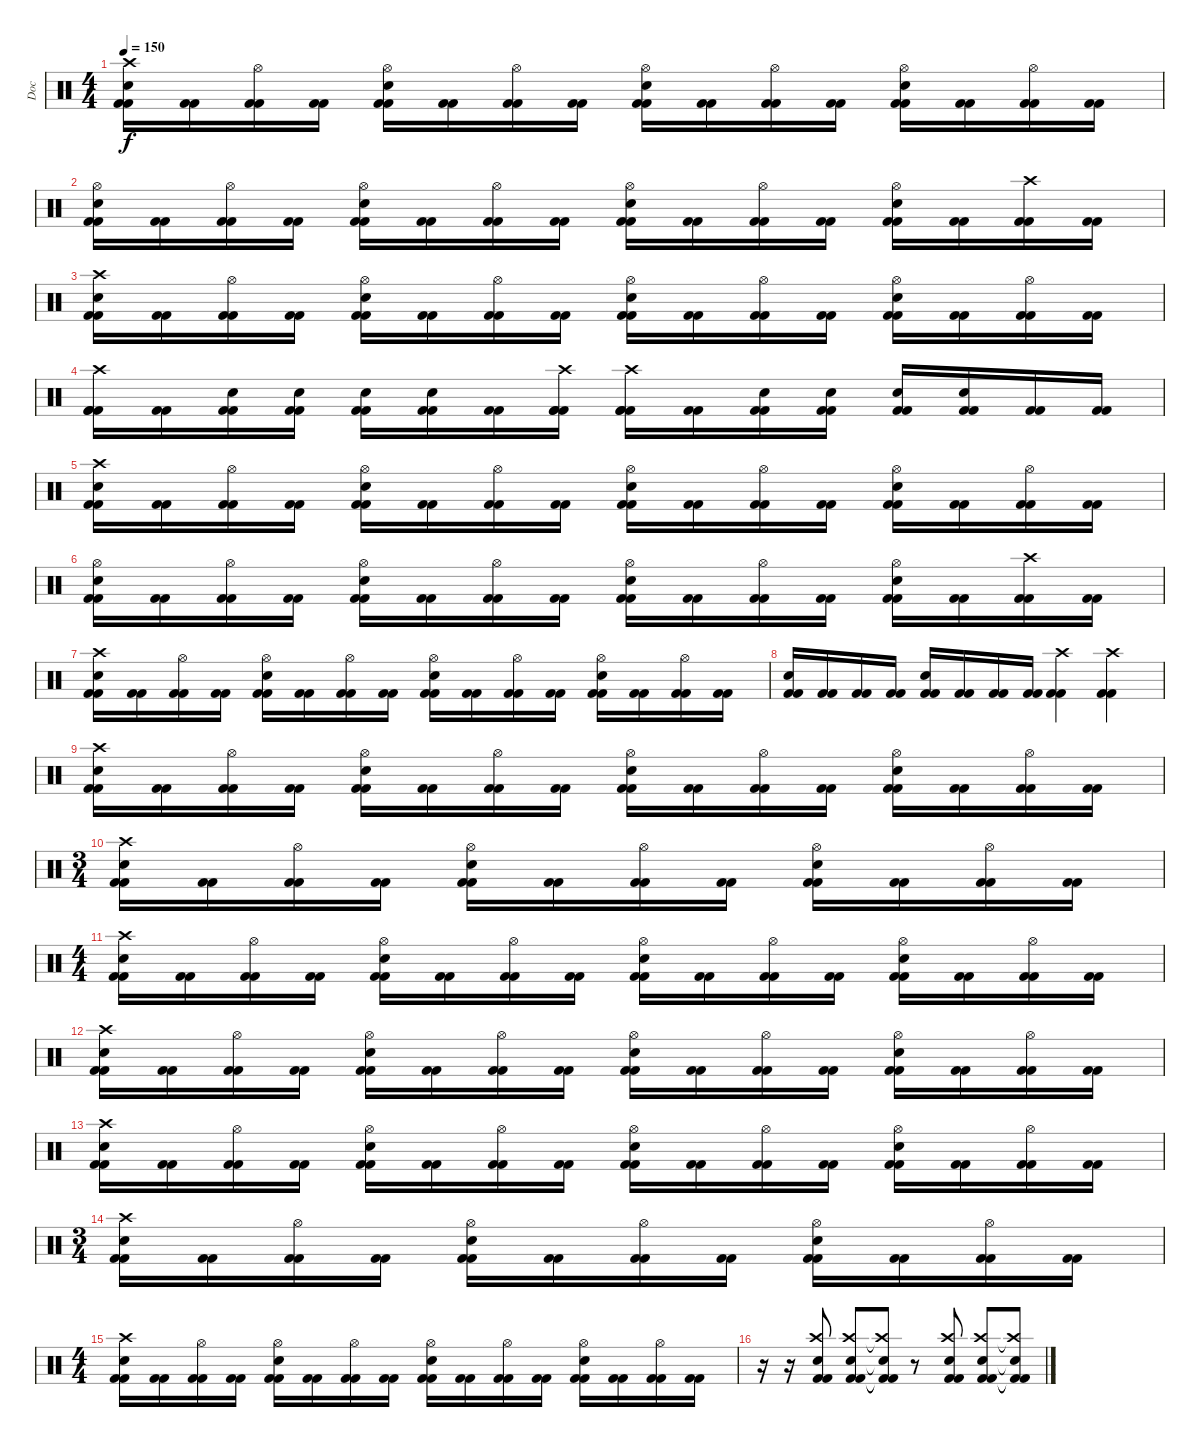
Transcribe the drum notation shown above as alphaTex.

\track ("Doc" "Doc") {instrument percussion}
\staff {score}
\articulation defaults
\ts (4 4)
\tempo 150
\clef neutral
\ks c
("Kick (hit) 2" "Crash high (hit)" "Electric Snare (hit)" "Kick (hit) 2").16{dy f} ("Kick (hit) 2" "Kick (hit) 2").16 ("Kick (hit) 2" "Hi-Hat (open)" "Kick (hit) 2").16 ("Kick (hit) 2" "Kick (hit) 2").16 ("Kick (hit) 2" "Hi-Hat (open)" "Electric Snare (hit)" "Kick (hit) 2").16 ("Kick (hit) 2" "Kick (hit) 2").16 ("Kick (hit) 2" "Hi-Hat (open)" "Kick (hit) 2").16 ("Kick (hit) 2" "Kick (hit) 2").16 ("Kick (hit) 2" "Hi-Hat (open)" "Electric Snare (hit)" "Kick (hit) 2").16 ("Kick (hit) 2" "Kick (hit) 2").16 ("Kick (hit) 2" "Hi-Hat (open)" "Kick (hit) 2").16 ("Kick (hit) 2" "Kick (hit) 2").16 ("Kick (hit) 2" "Hi-Hat (open)" "Electric Snare (hit)" "Kick (hit) 2").16 ("Kick (hit) 2" "Kick (hit) 2").16 ("Kick (hit) 2" "Hi-Hat (open)" "Kick (hit) 2").16 ("Kick (hit) 2" "Kick (hit) 2").16 |
("Kick (hit) 2" "Hi-Hat (open)" "Electric Snare (hit)" "Kick (hit) 2").16 ("Kick (hit) 2" "Kick (hit) 2").16 ("Kick (hit) 2" "Hi-Hat (open)" "Kick (hit) 2").16 ("Kick (hit) 2" "Kick (hit) 2").16 ("Kick (hit) 2" "Hi-Hat (open)" "Electric Snare (hit)" "Kick (hit) 2").16 ("Kick (hit) 2" "Kick (hit) 2").16 ("Kick (hit) 2" "Hi-Hat (open)" "Kick (hit) 2").16 ("Kick (hit) 2" "Kick (hit) 2").16 ("Kick (hit) 2" "Hi-Hat (open)" "Electric Snare (hit)" "Kick (hit) 2").16 ("Kick (hit) 2" "Kick (hit) 2").16 ("Kick (hit) 2" "Hi-Hat (open)" "Kick (hit) 2").16 ("Kick (hit) 2" "Kick (hit) 2").16 ("Kick (hit) 2" "Hi-Hat (open)" "Electric Snare (hit)" "Kick (hit) 2").16 ("Kick (hit) 2" "Kick (hit) 2").16 ("Kick (hit) 2" "Crash high (hit)" "Kick (hit) 2").16 ("Kick (hit) 2" "Kick (hit) 2").16 |
("Kick (hit) 2" "Crash high (hit)" "Electric Snare (hit)" "Kick (hit) 2").16 ("Kick (hit) 2" "Kick (hit) 2").16 ("Kick (hit) 2" "Hi-Hat (open)" "Kick (hit) 2").16 ("Kick (hit) 2" "Kick (hit) 2").16 ("Kick (hit) 2" "Hi-Hat (open)" "Electric Snare (hit)" "Kick (hit) 2").16 ("Kick (hit) 2" "Kick (hit) 2").16 ("Kick (hit) 2" "Hi-Hat (open)" "Kick (hit) 2").16 ("Kick (hit) 2" "Kick (hit) 2").16 ("Kick (hit) 2" "Hi-Hat (open)" "Electric Snare (hit)" "Kick (hit) 2").16 ("Kick (hit) 2" "Kick (hit) 2").16 ("Kick (hit) 2" "Hi-Hat (open)" "Kick (hit) 2").16 ("Kick (hit) 2" "Kick (hit) 2").16 ("Kick (hit) 2" "Hi-Hat (open)" "Electric Snare (hit)" "Kick (hit) 2").16 ("Kick (hit) 2" "Kick (hit) 2").16 ("Kick (hit) 2" "Hi-Hat (open)" "Kick (hit) 2").16 ("Kick (hit) 2" "Kick (hit) 2").16 |
("Kick (hit) 2" "Crash high (hit)" "Kick (hit) 2" "Kick (hit) 2").16 ("Kick (hit) 2" "Kick (hit) 2").16 ("Kick (hit) 2" "Electric Snare (hit)" "Kick (hit) 2").16 ("Kick (hit) 2" "Electric Snare (hit)" "Kick (hit) 2").16 ("Kick (hit) 2" "Electric Snare (hit)" "Kick (hit) 2").16 ("Kick (hit) 2" "Electric Snare (hit)" "Kick (hit) 2").16 ("Kick (hit) 2" "Kick (hit) 2").16 ("Kick (hit) 2" "Crash high (hit)" "Kick (hit) 2" "Kick (hit) 2").16 ("Kick (hit) 2" "Crash high (hit)" "Kick (hit) 2" "Kick (hit) 2").16 ("Kick (hit) 2" "Kick (hit) 2").16 ("Kick (hit) 2" "Electric Snare (hit)" "Kick (hit) 2").16 ("Kick (hit) 2" "Electric Snare (hit)" "Kick (hit) 2").16 ("Kick (hit) 2" "Electric Snare (hit)" "Kick (hit) 2").16 ("Kick (hit) 2" "Electric Snare (hit)" "Kick (hit) 2").16 ("Kick (hit) 2" "Kick (hit) 2").16 ("Kick (hit) 2" "Kick (hit) 2").16 |
("Kick (hit) 2" "Crash high (hit)" "Electric Snare (hit)" "Kick (hit) 2").16 ("Kick (hit) 2" "Kick (hit) 2").16 ("Kick (hit) 2" "Hi-Hat (open)" "Kick (hit) 2").16 ("Kick (hit) 2" "Kick (hit) 2").16 ("Kick (hit) 2" "Hi-Hat (open)" "Electric Snare (hit)" "Kick (hit) 2").16 ("Kick (hit) 2" "Kick (hit) 2").16 ("Kick (hit) 2" "Hi-Hat (open)" "Kick (hit) 2").16 ("Kick (hit) 2" "Kick (hit) 2").16 ("Kick (hit) 2" "Hi-Hat (open)" "Electric Snare (hit)" "Kick (hit) 2").16 ("Kick (hit) 2" "Kick (hit) 2").16 ("Kick (hit) 2" "Hi-Hat (open)" "Kick (hit) 2").16 ("Kick (hit) 2" "Kick (hit) 2").16 ("Kick (hit) 2" "Hi-Hat (open)" "Electric Snare (hit)" "Kick (hit) 2").16 ("Kick (hit) 2" "Kick (hit) 2").16 ("Kick (hit) 2" "Hi-Hat (open)" "Kick (hit) 2").16 ("Kick (hit) 2" "Kick (hit) 2").16 |
("Kick (hit) 2" "Hi-Hat (open)" "Electric Snare (hit)" "Kick (hit) 2").16 ("Kick (hit) 2" "Kick (hit) 2").16 ("Kick (hit) 2" "Hi-Hat (open)" "Kick (hit) 2").16 ("Kick (hit) 2" "Kick (hit) 2").16 ("Kick (hit) 2" "Hi-Hat (open)" "Electric Snare (hit)" "Kick (hit) 2").16 ("Kick (hit) 2" "Kick (hit) 2").16 ("Kick (hit) 2" "Hi-Hat (open)" "Kick (hit) 2").16 ("Kick (hit) 2" "Kick (hit) 2").16 ("Kick (hit) 2" "Hi-Hat (open)" "Electric Snare (hit)" "Kick (hit) 2").16 ("Kick (hit) 2" "Kick (hit) 2").16 ("Kick (hit) 2" "Hi-Hat (open)" "Kick (hit) 2").16 ("Kick (hit) 2" "Kick (hit) 2").16 ("Kick (hit) 2" "Hi-Hat (open)" "Electric Snare (hit)" "Kick (hit) 2").16 ("Kick (hit) 2" "Kick (hit) 2").16 ("Kick (hit) 2" "Crash high (hit)" "Kick (hit) 2").16 ("Kick (hit) 2" "Kick (hit) 2").16 |
("Kick (hit) 2" "Crash high (hit)" "Electric Snare (hit)" "Kick (hit) 2").16 ("Kick (hit) 2" "Kick (hit) 2").16 ("Kick (hit) 2" "Hi-Hat (open)" "Kick (hit) 2").16 ("Kick (hit) 2" "Kick (hit) 2").16 ("Kick (hit) 2" "Hi-Hat (open)" "Electric Snare (hit)" "Kick (hit) 2").16 ("Kick (hit) 2" "Kick (hit) 2").16 ("Kick (hit) 2" "Hi-Hat (open)" "Kick (hit) 2").16 ("Kick (hit) 2" "Kick (hit) 2").16 ("Kick (hit) 2" "Hi-Hat (open)" "Electric Snare (hit)" "Kick (hit) 2").16 ("Kick (hit) 2" "Kick (hit) 2").16 ("Kick (hit) 2" "Hi-Hat (open)" "Kick (hit) 2").16 ("Kick (hit) 2" "Kick (hit) 2").16 ("Kick (hit) 2" "Hi-Hat (open)" "Electric Snare (hit)" "Kick (hit) 2").16 ("Kick (hit) 2" "Kick (hit) 2").16 ("Kick (hit) 2" "Hi-Hat (open)" "Kick (hit) 2").16 ("Kick (hit) 2" "Kick (hit) 2").16 |
("Kick (hit) 2" "Electric Snare (hit)" "Kick (hit) 2").16 ("Kick (hit) 2" "Kick (hit) 2").16 ("Kick (hit) 2" "Kick (hit) 2").16 ("Kick (hit) 2" "Kick (hit) 2").16 ("Kick (hit) 2" "Electric Snare (hit)" "Kick (hit) 2").16 ("Kick (hit) 2" "Kick (hit) 2").16 ("Kick (hit) 2" "Kick (hit) 2").16 ("Kick (hit) 2" "Kick (hit) 2").16 ("Crash high (hit)" "Kick (hit) 2" "Kick (hit) 2").4 ("Crash high (hit)" "Kick (hit) 2" "Kick (hit) 2").4 |
("Kick (hit) 2" "Crash high (hit)" "Electric Snare (hit)" "Kick (hit) 2").16 ("Kick (hit) 2" "Kick (hit) 2").16 ("Kick (hit) 2" "Hi-Hat (open)" "Kick (hit) 2").16 ("Kick (hit) 2" "Kick (hit) 2").16 ("Kick (hit) 2" "Hi-Hat (open)" "Electric Snare (hit)" "Kick (hit) 2").16 ("Kick (hit) 2" "Kick (hit) 2").16 ("Kick (hit) 2" "Hi-Hat (open)" "Kick (hit) 2").16 ("Kick (hit) 2" "Kick (hit) 2").16 ("Kick (hit) 2" "Hi-Hat (open)" "Electric Snare (hit)" "Kick (hit) 2").16 ("Kick (hit) 2" "Kick (hit) 2").16 ("Kick (hit) 2" "Hi-Hat (open)" "Kick (hit) 2").16 ("Kick (hit) 2" "Kick (hit) 2").16 ("Kick (hit) 2" "Hi-Hat (open)" "Electric Snare (hit)" "Kick (hit) 2").16 ("Kick (hit) 2" "Kick (hit) 2").16 ("Kick (hit) 2" "Hi-Hat (open)" "Kick (hit) 2").16 ("Kick (hit) 2" "Kick (hit) 2").16 |
\ts (3 4)
("Kick (hit) 2" "Crash high (hit)" "Electric Snare (hit)" "Kick (hit) 2").16 ("Kick (hit) 2" "Kick (hit) 2").16 ("Kick (hit) 2" "Hi-Hat (open)" "Kick (hit) 2").16 ("Kick (hit) 2" "Kick (hit) 2").16 ("Kick (hit) 2" "Hi-Hat (open)" "Electric Snare (hit)" "Kick (hit) 2").16 ("Kick (hit) 2" "Kick (hit) 2").16 ("Kick (hit) 2" "Hi-Hat (open)" "Kick (hit) 2").16 ("Kick (hit) 2" "Kick (hit) 2").16 ("Kick (hit) 2" "Hi-Hat (open)" "Electric Snare (hit)" "Kick (hit) 2").16 ("Kick (hit) 2" "Kick (hit) 2").16 ("Kick (hit) 2" "Hi-Hat (open)" "Kick (hit) 2").16 ("Kick (hit) 2" "Kick (hit) 2").16 |
\ts (4 4)
("Kick (hit) 2" "Crash high (hit)" "Electric Snare (hit)" "Kick (hit) 2").16 ("Kick (hit) 2" "Kick (hit) 2").16 ("Kick (hit) 2" "Hi-Hat (open)" "Kick (hit) 2").16 ("Kick (hit) 2" "Kick (hit) 2").16 ("Kick (hit) 2" "Hi-Hat (open)" "Electric Snare (hit)" "Kick (hit) 2").16 ("Kick (hit) 2" "Kick (hit) 2").16 ("Kick (hit) 2" "Hi-Hat (open)" "Kick (hit) 2").16 ("Kick (hit) 2" "Kick (hit) 2").16 ("Kick (hit) 2" "Hi-Hat (open)" "Electric Snare (hit)" "Kick (hit) 2").16 ("Kick (hit) 2" "Kick (hit) 2").16 ("Kick (hit) 2" "Hi-Hat (open)" "Kick (hit) 2").16 ("Kick (hit) 2" "Kick (hit) 2").16 ("Kick (hit) 2" "Hi-Hat (open)" "Electric Snare (hit)" "Kick (hit) 2").16 ("Kick (hit) 2" "Kick (hit) 2").16 ("Kick (hit) 2" "Hi-Hat (open)" "Kick (hit) 2").16 ("Kick (hit) 2" "Kick (hit) 2").16 |
("Kick (hit) 2" "Crash high (hit)" "Electric Snare (hit)" "Kick (hit) 2").16 ("Kick (hit) 2" "Kick (hit) 2").16 ("Kick (hit) 2" "Hi-Hat (open)" "Kick (hit) 2").16 ("Kick (hit) 2" "Kick (hit) 2").16 ("Kick (hit) 2" "Hi-Hat (open)" "Electric Snare (hit)" "Kick (hit) 2").16 ("Kick (hit) 2" "Kick (hit) 2").16 ("Kick (hit) 2" "Hi-Hat (open)" "Kick (hit) 2").16 ("Kick (hit) 2" "Kick (hit) 2").16 ("Kick (hit) 2" "Hi-Hat (open)" "Electric Snare (hit)" "Kick (hit) 2").16 ("Kick (hit) 2" "Kick (hit) 2").16 ("Kick (hit) 2" "Hi-Hat (open)" "Kick (hit) 2").16 ("Kick (hit) 2" "Kick (hit) 2").16 ("Kick (hit) 2" "Hi-Hat (open)" "Electric Snare (hit)" "Kick (hit) 2").16 ("Kick (hit) 2" "Kick (hit) 2").16 ("Kick (hit) 2" "Hi-Hat (open)" "Kick (hit) 2").16 ("Kick (hit) 2" "Kick (hit) 2").16 |
("Kick (hit) 2" "Crash high (hit)" "Electric Snare (hit)" "Kick (hit) 2").16 ("Kick (hit) 2" "Kick (hit) 2").16 ("Kick (hit) 2" "Hi-Hat (open)" "Kick (hit) 2").16 ("Kick (hit) 2" "Kick (hit) 2").16 ("Kick (hit) 2" "Hi-Hat (open)" "Electric Snare (hit)" "Kick (hit) 2").16 ("Kick (hit) 2" "Kick (hit) 2").16 ("Kick (hit) 2" "Hi-Hat (open)" "Kick (hit) 2").16 ("Kick (hit) 2" "Kick (hit) 2").16 ("Kick (hit) 2" "Hi-Hat (open)" "Electric Snare (hit)" "Kick (hit) 2").16 ("Kick (hit) 2" "Kick (hit) 2").16 ("Kick (hit) 2" "Hi-Hat (open)" "Kick (hit) 2").16 ("Kick (hit) 2" "Kick (hit) 2").16 ("Kick (hit) 2" "Hi-Hat (open)" "Electric Snare (hit)" "Kick (hit) 2").16 ("Kick (hit) 2" "Kick (hit) 2").16 ("Kick (hit) 2" "Hi-Hat (open)" "Kick (hit) 2").16 ("Kick (hit) 2" "Kick (hit) 2").16 |
\ts (3 4)
("Kick (hit) 2" "Crash high (hit)" "Electric Snare (hit)" "Kick (hit) 2").16 ("Kick (hit) 2" "Kick (hit) 2").16 ("Kick (hit) 2" "Hi-Hat (open)" "Kick (hit) 2").16 ("Kick (hit) 2" "Kick (hit) 2").16 ("Kick (hit) 2" "Hi-Hat (open)" "Electric Snare (hit)" "Kick (hit) 2").16 ("Kick (hit) 2" "Kick (hit) 2").16 ("Kick (hit) 2" "Hi-Hat (open)" "Kick (hit) 2").16 ("Kick (hit) 2" "Kick (hit) 2").16 ("Kick (hit) 2" "Hi-Hat (open)" "Electric Snare (hit)" "Kick (hit) 2").16 ("Kick (hit) 2" "Kick (hit) 2").16 ("Kick (hit) 2" "Hi-Hat (open)" "Kick (hit) 2").16 ("Kick (hit) 2" "Kick (hit) 2").16 |
\ts (4 4)
("Kick (hit) 2" "Crash high (hit)" "Electric Snare (hit)" "Kick (hit) 2").16 ("Kick (hit) 2" "Kick (hit) 2").16 ("Kick (hit) 2" "Hi-Hat (open)" "Kick (hit) 2").16 ("Kick (hit) 2" "Kick (hit) 2").16 ("Kick (hit) 2" "Hi-Hat (open)" "Electric Snare (hit)" "Kick (hit) 2").16 ("Kick (hit) 2" "Kick (hit) 2").16 ("Kick (hit) 2" "Hi-Hat (open)" "Kick (hit) 2").16 ("Kick (hit) 2" "Kick (hit) 2").16 ("Kick (hit) 2" "Hi-Hat (open)" "Electric Snare (hit)" "Kick (hit) 2").16 ("Kick (hit) 2" "Kick (hit) 2").16 ("Kick (hit) 2" "Hi-Hat (open)" "Kick (hit) 2").16 ("Kick (hit) 2" "Kick (hit) 2").16 ("Kick (hit) 2" "Hi-Hat (open)" "Electric Snare (hit)" "Kick (hit) 2").16 ("Kick (hit) 2" "Kick (hit) 2").16 ("Kick (hit) 2" "Hi-Hat (open)" "Kick (hit) 2").16 ("Kick (hit) 2" "Kick (hit) 2").16 |
r.16 r.16 ("Crash high (hit)" "Electric Snare (hit)" "Kick (hit) 2" "Kick (hit) 2").8 ("Crash high (hit)" "Electric Snare (hit)" "Kick (hit) 2" "Kick (hit) 2").8 ("Crash high (hit)"{t} "Electric Snare (hit)"{t} "Kick (hit) 2"{t} "Kick (hit) 2"{t}).8 r.8 ("Crash high (hit)" "Electric Snare (hit)" "Kick (hit) 2" "Kick (hit) 2").8 ("Crash high (hit)" "Electric Snare (hit)" "Kick (hit) 2" "Kick (hit) 2").8 ("Crash high (hit)"{t} "Electric Snare (hit)"{t} "Kick (hit) 2"{t} "Kick (hit) 2"{t}).8
